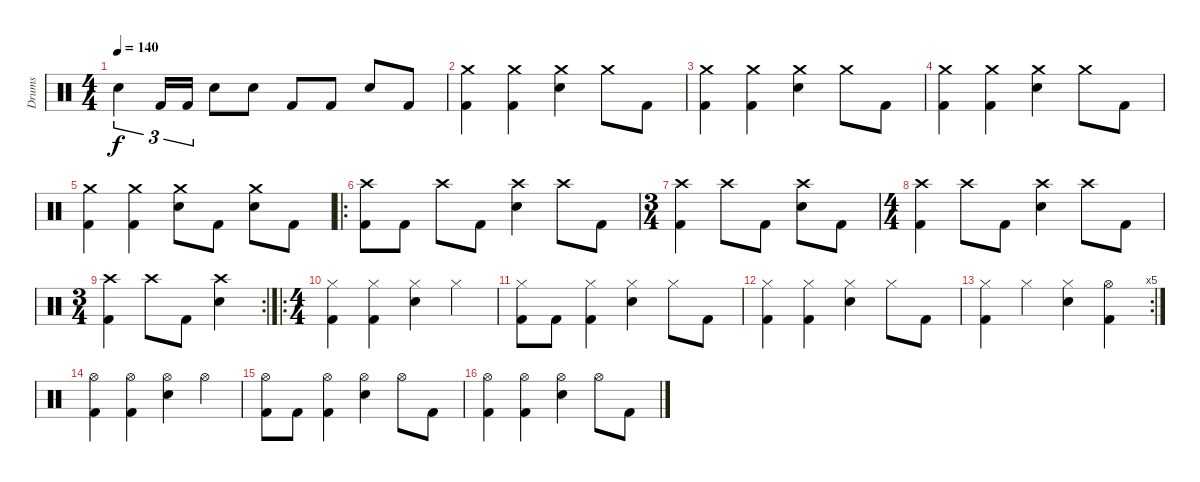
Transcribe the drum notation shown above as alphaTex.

\track ("Drums" "Drums") {instrument percussion}
\staff {score}
\articulation defaults
\ts (4 4)
\tempo 140
\clef neutral
\ks c "Snare (hit) 2".4{tu (3 2) dy f} "Kick (hit) 2".16{tu (3 2)} "Kick (hit) 2".16{tu (3 2)} "Snare (hit) 2".8 "Snare (hit) 2".8 "Kick (hit) 2".8 "Kick (hit) 2".8 "Snare (hit) 2".8 "Kick (hit) 2".8
|
("Crash medium (hit)" "Kick (hit) 2").4 ("Crash medium (hit)" "Kick (hit) 2").4 ("Crash medium (hit)" "Snare (hit) 2").4 "Crash medium (hit)".8 "Kick (hit) 2".8 |
("Crash medium (hit)" "Kick (hit) 2").4 ("Crash medium (hit)" "Kick (hit) 2").4 ("Crash medium (hit)" "Snare (hit) 2").4 "Crash medium (hit)".8 "Kick (hit) 2".8 |
("Crash medium (hit)" "Kick (hit) 2").4 ("Crash medium (hit)" "Kick (hit) 2").4 ("Crash medium (hit)" "Snare (hit) 2").4 "Crash medium (hit)".8 "Kick (hit) 2".8 |
("Crash medium (hit)" "Kick (hit) 2").4 ("Crash medium (hit)" "Kick (hit) 2").4 ("Crash medium (hit)" "Snare (hit) 2").8 "Kick (hit) 2".8 ("Crash medium (hit)" "Snare (hit) 2").8 "Kick (hit) 2".8 |
\ro
("Crash high (hit)" "Kick (hit) 2").8 "Kick (hit) 2".8 "Crash high (hit)".8 "Kick (hit) 2".8 ("Crash high (hit)" "Snare (hit) 2").4 "Crash high (hit)".8 "Kick (hit) 2".8 |
\ts (3 4)
("Crash high (hit)" "Kick (hit) 2").4 "Crash high (hit)".8 "Kick (hit) 2".8 ("Crash high (hit)" "Snare (hit) 2").8 "Kick (hit) 2".8 |
\ts (4 4)
("Crash high (hit)" "Kick (hit) 2").4 "Crash high (hit)".8 "Kick (hit) 2".8 ("Crash high (hit)" "Snare (hit) 2").4 "Crash high (hit)".8 "Kick (hit) 2".8 |
\rc 2
\ts (3 4)
("Crash high (hit)" "Kick (hit) 2").4 "Crash high (hit)".8 "Kick (hit) 2".8 ("Crash high (hit)" "Snare (hit) 2").4 |
\ro
\ts (4 4)
("Kick (hit) 2" "Hi-Hat (closed)").4 ("Kick (hit) 2" "Hi-Hat (closed)").4 ("Snare (hit) 2" "Hi-Hat (closed)").4 "Hi-Hat (closed)".4 |
("Kick (hit) 2" "Hi-Hat (closed)").8 "Kick (hit) 2".8 ("Kick (hit) 2" "Hi-Hat (closed)").4 ("Snare (hit) 2" "Hi-Hat (closed)").4 "Hi-Hat (closed)".8 "Kick (hit) 2".8 |
("Kick (hit) 2" "Hi-Hat (closed)").4 ("Kick (hit) 2" "Hi-Hat (closed)").4 ("Snare (hit) 2" "Hi-Hat (closed)").4 "Hi-Hat (closed)".8 "Kick (hit) 2".8 |
\rc 5
("Kick (hit) 2" "Hi-Hat (closed)").4 "Hi-Hat (closed)".4 ("Snare (hit) 2" "Hi-Hat (closed)").4 ("Kick (hit) 2" "Hi-Hat (open)").4 |
("Kick (hit) 2" "Hi-Hat (open)").4 ("Kick (hit) 2" "Hi-Hat (open)").4 ("Snare (hit) 2" "Hi-Hat (open)").4 "Hi-Hat (open)".4 |
("Kick (hit) 2" "Hi-Hat (open)").8 "Kick (hit) 2".8 ("Kick (hit) 2" "Hi-Hat (open)").4 ("Snare (hit) 2" "Hi-Hat (open)").4 "Hi-Hat (open)".8 "Kick (hit) 2".8 |
("Kick (hit) 2" "Hi-Hat (open)").4 ("Kick (hit) 2" "Hi-Hat (open)").4 ("Snare (hit) 2" "Hi-Hat (open)").4 "Hi-Hat (open)".8 "Kick (hit) 2".8
